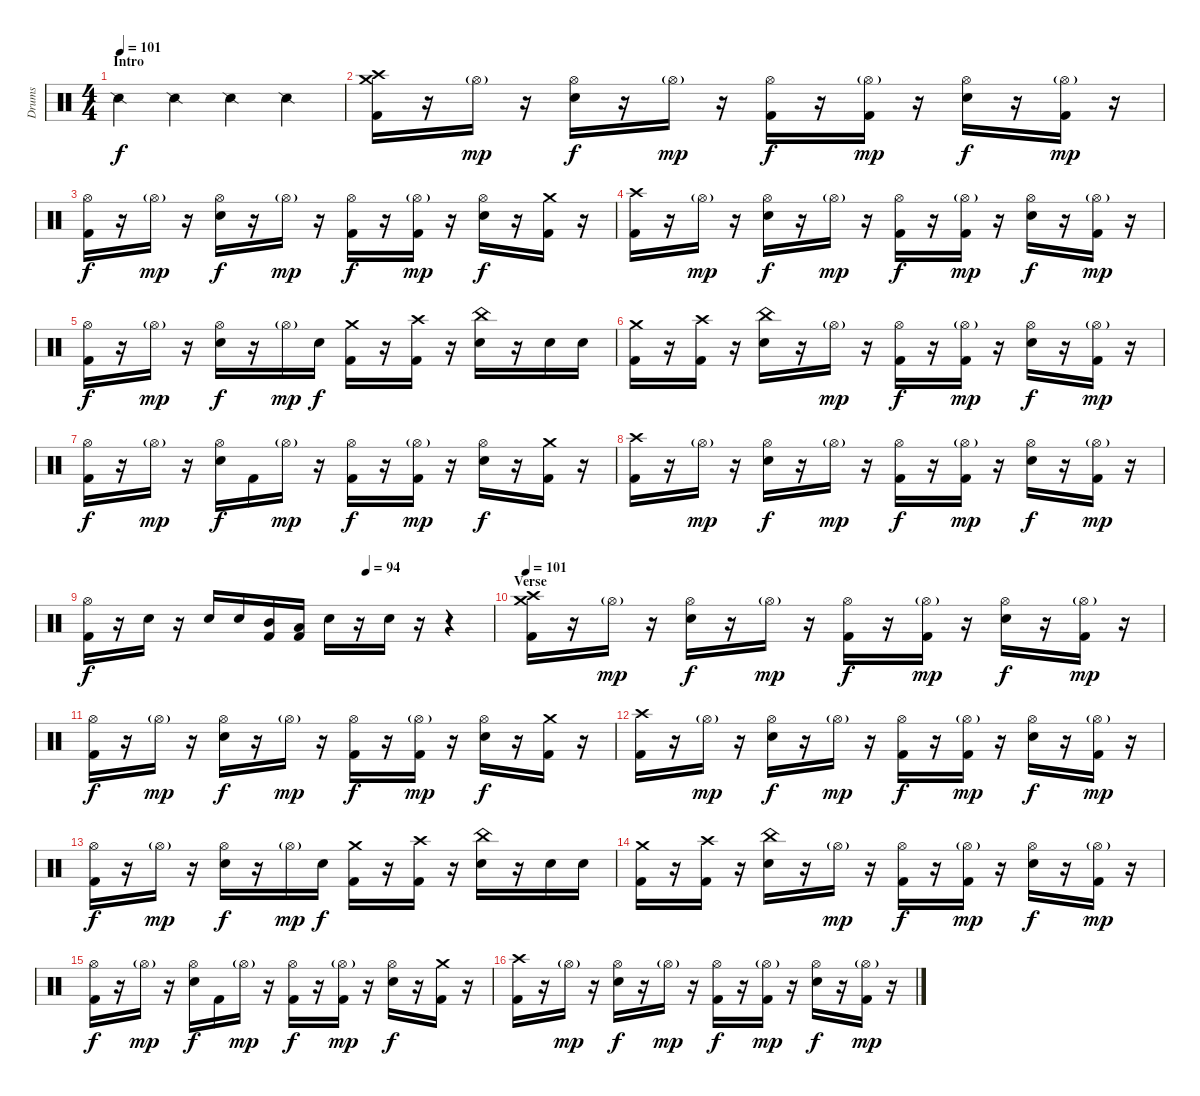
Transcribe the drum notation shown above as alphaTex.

\track ("Drums" "Drums") {instrument percussion}
\staff {score}
\articulation defaults
\ts (4 4)
\section ("" "Intro")
\tempo 101
\clef neutral
\ks c "Snare (side stick) 2".4{dy f} "Snare (side stick) 2".4 "Snare (side stick) 2".4 "Snare (side stick) 2".4
|
("Crash medium (hit)" "Crash high (hit)" "Kick (hit) 2").16 r.16 "Hi-Hat (open)"{g}.16{dy mp} r.16 ("Hi-Hat (open)" "Electric Snare (hit)").16{dy f} r.16 "Hi-Hat (open)"{g}.16{dy mp} r.16 ("Hi-Hat (open)" "Kick (hit) 2").16{dy f} r.16 ("Hi-Hat (open)"{g} "Kick (hit) 2").16{dy mp} r.16 ("Hi-Hat (open)" "Electric Snare (hit)").16{dy f} r.16 ("Hi-Hat (open)"{g} "Kick (hit) 2").16{dy mp} r.16 |
("Hi-Hat (open)" "Kick (hit) 2").16{dy f} r.16 "Hi-Hat (open)"{g}.16{dy mp} r.16 ("Hi-Hat (open)" "Electric Snare (hit)").16{dy f} r.16 "Hi-Hat (open)"{g}.16{dy mp} r.16 ("Hi-Hat (open)" "Kick (hit) 2").16{dy f} r.16 ("Hi-Hat (open)"{g} "Kick (hit) 2").16{dy mp} r.16 ("Hi-Hat (open)" "Electric Snare (hit)").16{dy f} r.16 ("Crash medium (hit)" "Kick (hit) 2").16 r.16 |
("Crash high (hit)" "Kick (hit) 2").16 r.16 "Hi-Hat (open)"{g}.16{dy mp} r.16 ("Hi-Hat (open)" "Electric Snare (hit)").16{dy f} r.16 "Hi-Hat (open)"{g}.16{dy mp} r.16 ("Hi-Hat (open)" "Kick (hit) 2").16{dy f} r.16 ("Hi-Hat (open)"{g} "Kick (hit) 2").16{dy mp} r.16 ("Hi-Hat (open)" "Electric Snare (hit)").16{dy f} r.16 ("Hi-Hat (open)"{g} "Kick (hit) 2").16{dy mp} r.16 |
("Hi-Hat (open)" "Kick (hit) 2").16{dy f} r.16 "Hi-Hat (open)"{g}.16{dy mp} r.16 ("Hi-Hat (open)" "Electric Snare (hit)").16{dy f} r.16 "Hi-Hat (open)"{g}.16{dy mp} "Electric Snare (hit)".16{dy f} ("Crash medium (hit)" "Kick (hit) 2").16 r.16 ("Crash high (hit)" "Kick (hit) 2").16 r.16 ("China (hit)" "Electric Snare (hit)").16 r.16 "Electric Snare (hit)".16 "Electric Snare (hit)".16 |
("Crash medium (hit)" "Kick (hit) 2").16 r.16 ("Crash high (hit)" "Kick (hit) 2").16 r.16 ("China (hit)" "Electric Snare (hit)").16 r.16 "Hi-Hat (open)"{g}.16{dy mp} r.16 ("Hi-Hat (open)" "Kick (hit) 2").16{dy f} r.16 ("Hi-Hat (open)"{g} "Kick (hit) 2").16{dy mp} r.16 ("Hi-Hat (open)" "Electric Snare (hit)").16{dy f} r.16 ("Hi-Hat (open)"{g} "Kick (hit) 2").16{dy mp} r.16 |
("Hi-Hat (open)" "Kick (hit) 2").16{dy f} r.16 "Hi-Hat (open)"{g}.16{dy mp} r.16 ("Hi-Hat (open)" "Electric Snare (hit)").16{dy f} "Kick (hit) 2".16 "Hi-Hat (open)"{g}.16{dy mp} r.16 ("Hi-Hat (open)" "Kick (hit) 2").16{dy f} r.16 ("Hi-Hat (open)"{g} "Kick (hit) 2").16{dy mp} r.16 ("Hi-Hat (open)" "Electric Snare (hit)").16{dy f} r.16 ("Crash medium (hit)" "Kick (hit) 2").16 r.16 |
("Crash high (hit)" "Kick (hit) 2").16 r.16 "Hi-Hat (open)"{g}.16{dy mp} r.16 ("Hi-Hat (open)" "Electric Snare (hit)").16{dy f} r.16 "Hi-Hat (open)"{g}.16{dy mp} r.16 ("Hi-Hat (open)" "Kick (hit) 2").16{dy f} r.16 ("Hi-Hat (open)"{g} "Kick (hit) 2").16{dy mp} r.16 ("Hi-Hat (open)" "Electric Snare (hit)").16{dy f} r.16 ("Hi-Hat (open)"{g} "Kick (hit) 2").16{dy mp} r.16 |
\tempo (94 0.6875)
("Hi-Hat (open)" "Kick (hit) 2").16{dy f} r.16 "Electric Snare (hit)".16 r.16 "Electric Snare (hit)".16 "Electric Snare (hit)".16 ("Mid Tom (hit)" "Kick (hit) 2").16 ("Low Tom (hit)" "Kick (hit) 2").16 "Electric Snare (hit)".16 r.16 "Electric Snare (hit)".16 r.16 r.4 |
\section ("" "Verse")
\tempo 101
("Crash medium (hit)" "Crash high (hit)" "Kick (hit) 2").16 r.16 "Hi-Hat (open)"{g}.16{dy mp} r.16 ("Hi-Hat (open)" "Electric Snare (hit)").16{dy f} r.16 "Hi-Hat (open)"{g}.16{dy mp} r.16 ("Hi-Hat (open)" "Kick (hit) 2").16{dy f} r.16 ("Hi-Hat (open)"{g} "Kick (hit) 2").16{dy mp} r.16 ("Hi-Hat (open)" "Electric Snare (hit)").16{dy f} r.16 ("Hi-Hat (open)"{g} "Kick (hit) 2").16{dy mp} r.16 |
("Hi-Hat (open)" "Kick (hit) 2").16{dy f} r.16 "Hi-Hat (open)"{g}.16{dy mp} r.16 ("Hi-Hat (open)" "Electric Snare (hit)").16{dy f} r.16 "Hi-Hat (open)"{g}.16{dy mp} r.16 ("Hi-Hat (open)" "Kick (hit) 2").16{dy f} r.16 ("Hi-Hat (open)"{g} "Kick (hit) 2").16{dy mp} r.16 ("Hi-Hat (open)" "Electric Snare (hit)").16{dy f} r.16 ("Crash medium (hit)" "Kick (hit) 2").16 r.16 |
("Crash high (hit)" "Kick (hit) 2").16 r.16 "Hi-Hat (open)"{g}.16{dy mp} r.16 ("Hi-Hat (open)" "Electric Snare (hit)").16{dy f} r.16 "Hi-Hat (open)"{g}.16{dy mp} r.16 ("Hi-Hat (open)" "Kick (hit) 2").16{dy f} r.16 ("Hi-Hat (open)"{g} "Kick (hit) 2").16{dy mp} r.16 ("Hi-Hat (open)" "Electric Snare (hit)").16{dy f} r.16 ("Hi-Hat (open)"{g} "Kick (hit) 2").16{dy mp} r.16 |
("Hi-Hat (open)" "Kick (hit) 2").16{dy f} r.16 "Hi-Hat (open)"{g}.16{dy mp} r.16 ("Hi-Hat (open)" "Electric Snare (hit)").16{dy f} r.16 "Hi-Hat (open)"{g}.16{dy mp} "Electric Snare (hit)".16{dy f} ("Crash medium (hit)" "Kick (hit) 2").16 r.16 ("Crash high (hit)" "Kick (hit) 2").16 r.16 ("China (hit)" "Electric Snare (hit)").16 r.16 "Electric Snare (hit)".16 "Electric Snare (hit)".16 |
("Crash medium (hit)" "Kick (hit) 2").16 r.16 ("Crash high (hit)" "Kick (hit) 2").16 r.16 ("China (hit)" "Electric Snare (hit)").16 r.16 "Hi-Hat (open)"{g}.16{dy mp} r.16 ("Hi-Hat (open)" "Kick (hit) 2").16{dy f} r.16 ("Hi-Hat (open)"{g} "Kick (hit) 2").16{dy mp} r.16 ("Hi-Hat (open)" "Electric Snare (hit)").16{dy f} r.16 ("Hi-Hat (open)"{g} "Kick (hit) 2").16{dy mp} r.16 |
("Hi-Hat (open)" "Kick (hit) 2").16{dy f} r.16 "Hi-Hat (open)"{g}.16{dy mp} r.16 ("Hi-Hat (open)" "Electric Snare (hit)").16{dy f} "Kick (hit) 2".16 "Hi-Hat (open)"{g}.16{dy mp} r.16 ("Hi-Hat (open)" "Kick (hit) 2").16{dy f} r.16 ("Hi-Hat (open)"{g} "Kick (hit) 2").16{dy mp} r.16 ("Hi-Hat (open)" "Electric Snare (hit)").16{dy f} r.16 ("Crash medium (hit)" "Kick (hit) 2").16 r.16 |
("Crash high (hit)" "Kick (hit) 2").16 r.16 "Hi-Hat (open)"{g}.16{dy mp} r.16 ("Hi-Hat (open)" "Electric Snare (hit)").16{dy f} r.16 "Hi-Hat (open)"{g}.16{dy mp} r.16 ("Hi-Hat (open)" "Kick (hit) 2").16{dy f} r.16 ("Hi-Hat (open)"{g} "Kick (hit) 2").16{dy mp} r.16 ("Hi-Hat (open)" "Electric Snare (hit)").16{dy f} r.16 ("Hi-Hat (open)"{g} "Kick (hit) 2").16{dy mp} r.16
